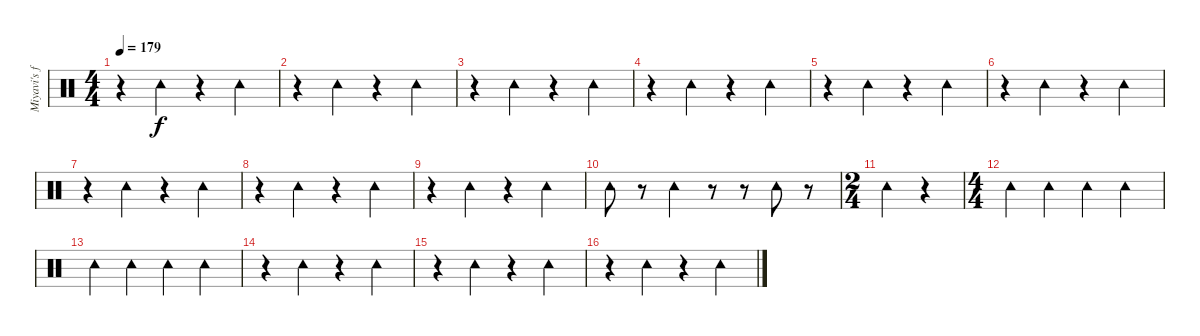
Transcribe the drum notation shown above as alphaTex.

\track ("Miyavi's foot" "Miyavi's f") {instrument percussion}
\staff {score}
\articulation defaults
\ts (4 4)
\tempo 179
\clef neutral
\ks c
r.4{dy f} "Tambourine (hit)".4 r.4 "Tambourine (hit)".4 |
r.4 "Tambourine (hit)".4 r.4 "Tambourine (hit)".4 |
r.4 "Tambourine (hit)".4 r.4 "Tambourine (hit)".4 |
r.4 "Tambourine (hit)".4 r.4 "Tambourine (hit)".4 |
r.4 "Tambourine (hit)".4 r.4 "Tambourine (hit)".4 |
r.4 "Tambourine (hit)".4 r.4 "Tambourine (hit)".4 |
r.4 "Tambourine (hit)".4 r.4 "Tambourine (hit)".4 |
r.4 "Tambourine (hit)".4 r.4 "Tambourine (hit)".4 |
r.4 "Tambourine (hit)".4 r.4 "Tambourine (hit)".4 |
"Tambourine (hit)".8 r.8 "Tambourine (hit)".4 r.8 r.8 "Tambourine (hit)".8 r.8 |
\ts (2 4)
"Tambourine (hit)".4 r.4 |
\ts (4 4)
"Tambourine (hit)".4 "Tambourine (hit)".4 "Tambourine (hit)".4 "Tambourine (hit)".4 |
"Tambourine (hit)".4 "Tambourine (hit)".4 "Tambourine (hit)".4 "Tambourine (hit)".4 |
r.4 "Tambourine (hit)".4 r.4 "Tambourine (hit)".4 |
r.4 "Tambourine (hit)".4 r.4 "Tambourine (hit)".4 |
r.4 "Tambourine (hit)".4 r.4 "Tambourine (hit)".4
